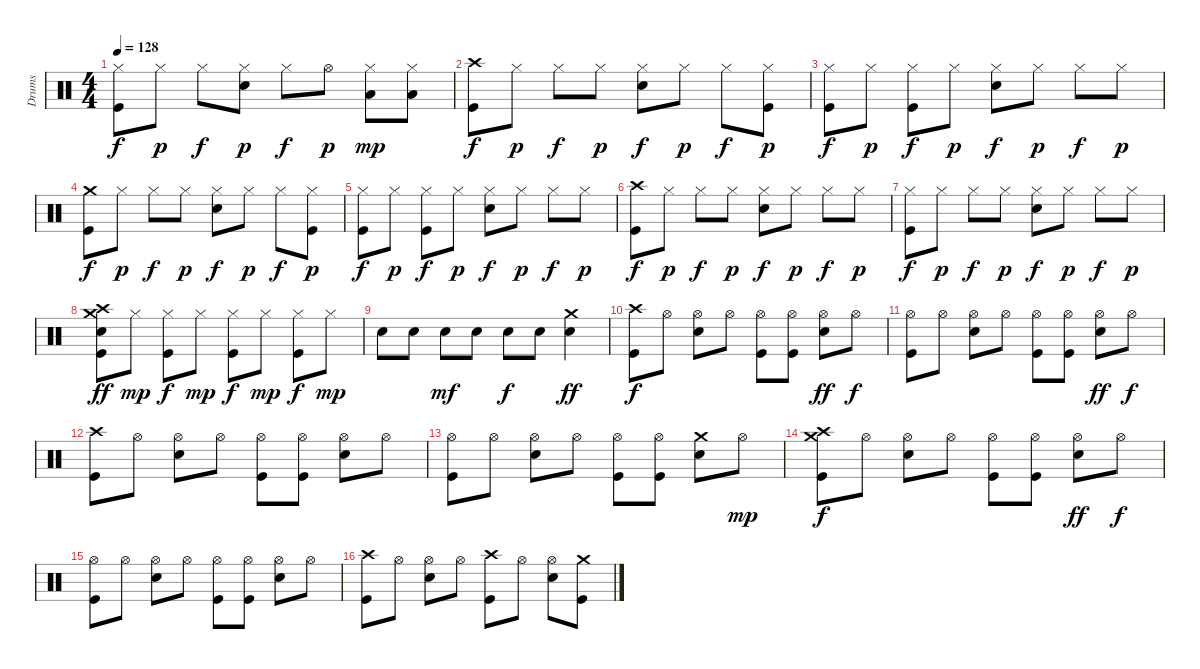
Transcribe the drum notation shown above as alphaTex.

\track ("Drums" "Drums") {instrument percussion}
\staff {score}
\articulation defaults
\ts (4 4)
\tempo 128
\clef neutral
\ks c
("Hi-Hat (closed)" "Kick (hit)").8{dy f} "Hi-Hat (closed)".8{dy p} "Hi-Hat (closed)".8{dy f} ("Hi-Hat (closed)" "Snare (hit) 2").8{dy p} "Hi-Hat (closed)".8{dy f} "Hi-Hat (open)".8{dy p} ("Hi-Hat (closed)" "Low Tom (hit)").8{dy mp} ("Hi-Hat (closed)" "Low Tom (hit)").8 |
("Crash high (hit)" "Kick (hit)").8{dy f} "Hi-Hat (closed)".8{dy p} "Hi-Hat (closed)".8{dy f} "Hi-Hat (closed)".8{dy p} ("Hi-Hat (closed)" "Snare (hit) 2").8{dy f} "Hi-Hat (closed)".8{dy p} "Hi-Hat (closed)".8{dy f} ("Hi-Hat (closed)" "Kick (hit)").8{dy p} |
("Hi-Hat (closed)" "Kick (hit)").8{dy f} "Hi-Hat (closed)".8{dy p} ("Hi-Hat (closed)" "Kick (hit)").8{dy f} "Hi-Hat (closed)".8{dy p} ("Hi-Hat (closed)" "Snare (hit) 2").8{dy f} "Hi-Hat (closed)".8{dy p} "Hi-Hat (closed)".8{dy f} "Hi-Hat (closed)".8{dy p} |
("Crash medium (hit)" "Kick (hit)").8{dy f} "Hi-Hat (closed)".8{dy p} "Hi-Hat (closed)".8{dy f} "Hi-Hat (closed)".8{dy p} ("Hi-Hat (closed)" "Snare (hit) 2").8{dy f} "Hi-Hat (closed)".8{dy p} "Hi-Hat (closed)".8{dy f} ("Hi-Hat (closed)" "Kick (hit)").8{dy p} |
("Hi-Hat (closed)" "Kick (hit)").8{dy f} "Hi-Hat (closed)".8{dy p} ("Hi-Hat (closed)" "Kick (hit)").8{dy f} "Hi-Hat (closed)".8{dy p} ("Hi-Hat (closed)" "Snare (hit) 2").8{dy f} "Hi-Hat (closed)".8{dy p} "Hi-Hat (closed)".8{dy f} "Hi-Hat (closed)".8{dy p} |
("Crash high (hit)" "Kick (hit)").8{dy f} "Hi-Hat (closed)".8{dy p} "Hi-Hat (closed)".8{dy f} "Hi-Hat (closed)".8{dy p} ("Hi-Hat (closed)" "Snare (hit) 2").8{dy f} "Hi-Hat (closed)".8{dy p} "Hi-Hat (closed)".8{dy f} "Hi-Hat (closed)".8{dy p} |
("Hi-Hat (closed)" "Kick (hit)").8{dy f} "Hi-Hat (closed)".8{dy p} "Hi-Hat (closed)".8{dy f} "Hi-Hat (closed)".8{dy p} ("Hi-Hat (closed)" "Snare (hit) 2").8{dy f} "Hi-Hat (closed)".8{dy p} "Hi-Hat (closed)".8{dy f} "Hi-Hat (closed)".8{dy p} |
("Crash high (hit)" "Crash medium (hit)" "Snare (hit) 2" "Kick (hit)").8{dy ff} "Hi-Hat (closed)".8{dy mp} ("Hi-Hat (closed)" "Kick (hit)").8{dy f} "Hi-Hat (closed)".8{dy mp} ("Hi-Hat (closed)" "Kick (hit)").8{dy f} "Hi-Hat (closed)".8{dy mp} ("Hi-Hat (closed)" "Kick (hit)").8{dy f} "Hi-Hat (closed)".8{dy mp} |
"Snare (hit) 2".8 "Snare (hit) 2".8 "Snare (hit) 2".8{dy mf} "Snare (hit) 2".8 "Snare (hit) 2".8{dy f} "Snare (hit) 2".8 ("Crash medium (hit)" "Snare (hit) 2").4{dy ff} |
("Crash high (hit)" "Kick (hit)").8{dy f} "Hi-Hat (open)".8 ("Hi-Hat (open)" "Snare (hit) 2").8 "Hi-Hat (open)".8 ("Hi-Hat (open)" "Kick (hit)").8 ("Hi-Hat (open)" "Kick (hit)").8 ("Hi-Hat (open)" "Snare (hit) 2").8{dy ff} "Hi-Hat (open)".8{dy f} |
("Hi-Hat (open)" "Kick (hit)").8 "Hi-Hat (open)".8 ("Hi-Hat (open)" "Snare (hit) 2").8 "Hi-Hat (open)".8 ("Hi-Hat (open)" "Kick (hit)").8 ("Hi-Hat (open)" "Kick (hit)").8 ("Hi-Hat (open)" "Snare (hit) 2").8{dy ff} "Hi-Hat (open)".8{dy f} |
("Crash high (hit)" "Kick (hit)").8 "Hi-Hat (open)".8 ("Hi-Hat (open)" "Snare (hit) 2").8 "Hi-Hat (open)".8 ("Hi-Hat (open)" "Kick (hit)").8 ("Hi-Hat (open)" "Kick (hit)").8 ("Hi-Hat (open)" "Snare (hit) 2").8 "Hi-Hat (open)".8 |
("Hi-Hat (open)" "Kick (hit)").8 "Hi-Hat (open)".8 ("Hi-Hat (open)" "Snare (hit) 2").8 "Hi-Hat (open)".8 ("Hi-Hat (open)" "Kick (hit)").8 ("Hi-Hat (open)" "Kick (hit)").8 ("Crash medium (hit)" "Snare (hit) 2").8 "Hi-Hat (open)".8{dy mp} |
("Crash high (hit)" "Crash medium (hit)" "Kick (hit)").8{dy f} "Hi-Hat (open)".8 ("Hi-Hat (open)" "Snare (hit) 2").8 "Hi-Hat (open)".8 ("Hi-Hat (open)" "Kick (hit)").8 ("Hi-Hat (open)" "Kick (hit)").8 ("Hi-Hat (open)" "Snare (hit) 2").8{dy ff} "Hi-Hat (open)".8{dy f} |
("Hi-Hat (open)" "Kick (hit)").8 "Hi-Hat (open)".8 ("Hi-Hat (open)" "Snare (hit) 2").8 "Hi-Hat (open)".8 ("Hi-Hat (open)" "Kick (hit)").8 ("Hi-Hat (open)" "Kick (hit)").8 ("Hi-Hat (open)" "Snare (hit) 2").8 "Hi-Hat (open)".8 |
("Crash high (hit)" "Kick (hit)").8 "Hi-Hat (open)".8 ("Hi-Hat (open)" "Snare (hit) 2").8 "Hi-Hat (open)".8 ("Crash high (hit)" "Kick (hit)").8 "Hi-Hat (open)".8 ("Hi-Hat (open)" "Snare (hit) 2").8 ("Crash medium (hit)" "Kick (hit)").8
